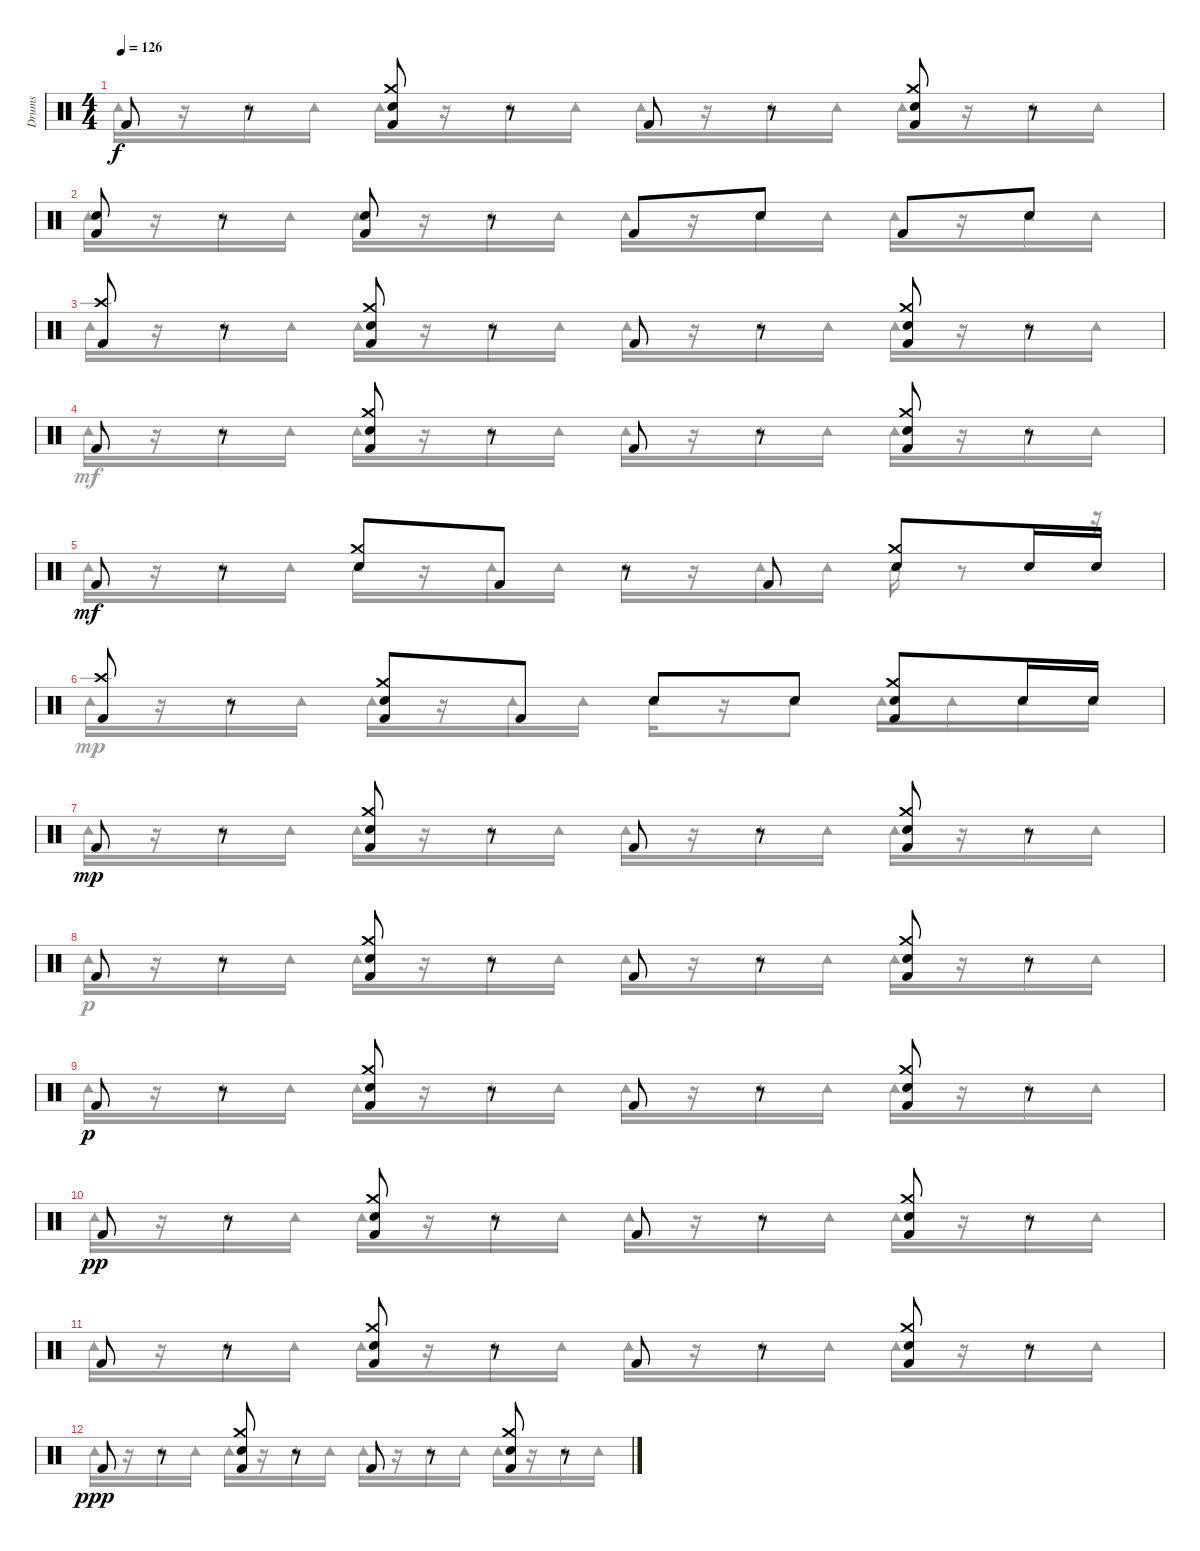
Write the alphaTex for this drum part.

\track ("Drums" "Drums") {instrument percussion}
\staff {score}
\articulation defaults
\voice
\ts (4 4)
\tempo 126
\clef neutral
\ks c "Kick (hit) 2".8{dy f}
r.8 ("Crash medium (hit)" "Electric Snare (hit)" "Kick (hit) 2").8 r.8 "Kick (hit) 2".8 r.8 ("Crash medium (hit)" "Electric Snare (hit)" "Kick (hit) 2").8 r.8 |
("Electric Snare (hit)" "Kick (hit) 2").8 r.8 ("Electric Snare (hit)" "Kick (hit) 2").8 r.8 "Kick (hit) 2".8 "Electric Snare (hit)".8 "Kick (hit) 2".8 "Electric Snare (hit)".8 |
("Crash high (hit)" "Kick (hit) 2").8 r.8 ("Crash medium (hit)" "Electric Snare (hit)" "Kick (hit) 2").8 r.8 "Kick (hit) 2".8 r.8 ("Crash medium (hit)" "Electric Snare (hit)" "Kick (hit) 2").8 r.8 |
"Kick (hit) 2".8 r.8 ("Crash medium (hit)" "Electric Snare (hit)" "Kick (hit) 2").8 r.8 "Kick (hit) 2".8 r.8 ("Crash medium (hit)" "Electric Snare (hit)" "Kick (hit) 2").8 r.8 |
"Kick (hit) 2".8{dy mf} r.8 ("Crash medium (hit)" "Electric Snare (hit)").8 "Kick (hit) 2".8 r.8 "Kick (hit) 2".8 ("Crash medium (hit)" "Electric Snare (hit)").8 "Electric Snare (hit)".16 "Electric Snare (hit)".16 |
("Crash high (hit)" "Kick (hit) 2").8 r.8 ("Crash medium (hit)" "Electric Snare (hit)" "Kick (hit) 2").8 "Kick (hit) 2".8 "Electric Snare (hit)".8 "Electric Snare (hit)".8 ("Crash medium (hit)" "Electric Snare (hit)" "Kick (hit) 2").8 "Electric Snare (hit)".16 "Electric Snare (hit)".16 |
"Kick (hit) 2".8{dy mp} r.8 ("Crash medium (hit)" "Electric Snare (hit)" "Kick (hit) 2").8 r.8 "Kick (hit) 2".8 r.8 ("Crash medium (hit)" "Electric Snare (hit)" "Kick (hit) 2").8 r.8 |
"Kick (hit) 2".8 r.8 ("Crash medium (hit)" "Electric Snare (hit)" "Kick (hit) 2").8 r.8 "Kick (hit) 2".8 r.8 ("Crash medium (hit)" "Electric Snare (hit)" "Kick (hit) 2").8 r.8 |
"Kick (hit) 2".8{dy p} r.8 ("Crash medium (hit)" "Electric Snare (hit)" "Kick (hit) 2").8 r.8 "Kick (hit) 2".8 r.8 ("Crash medium (hit)" "Electric Snare (hit)" "Kick (hit) 2").8 r.8 |
"Kick (hit) 2".8{dy pp} r.8 ("Crash medium (hit)" "Electric Snare (hit)" "Kick (hit) 2").8 r.8 "Kick (hit) 2".8 r.8 ("Crash medium (hit)" "Electric Snare (hit)" "Kick (hit) 2").8 r.8 |
"Kick (hit) 2".8 r.8 ("Crash medium (hit)" "Electric Snare (hit)" "Kick (hit) 2").8 r.8 "Kick (hit) 2".8 r.8 ("Crash medium (hit)" "Electric Snare (hit)" "Kick (hit) 2").8 r.8 |
"Kick (hit) 2".8{dy ppp} r.8 ("Crash medium (hit)" "Electric Snare (hit)" "Kick (hit) 2").8 r.8 "Kick (hit) 2".8 r.8 ("Crash medium (hit)" "Electric Snare (hit)" "Kick (hit) 2").8 r.8 |
|
|
|
\voice
\clef neutral
\ottava regular
\simile none
\ks c "Tambourine (hit)".16{dy f}
r.16 "Tambourine (hit)".16 "Tambourine (hit)".16 "Tambourine (hit)".16 r.16 "Tambourine (hit)".16 "Tambourine (hit)".16 "Tambourine (hit)".16 r.16 "Tambourine (hit)".16 "Tambourine (hit)".16 "Tambourine (hit)".16 r.16 "Tambourine (hit)".16 "Tambourine (hit)".16 |
"Tambourine (hit)".16 r.16 "Tambourine (hit)".16 "Tambourine (hit)".16 "Tambourine (hit)".16 r.16 "Tambourine (hit)".16 "Tambourine (hit)".16 "Tambourine (hit)".16 r.16 "Tambourine (hit)".16 "Tambourine (hit)".16 "Tambourine (hit)".16 r.16 "Tambourine (hit)".16 "Tambourine (hit)".16 |
"Tambourine (hit)".16 r.16 "Tambourine (hit)".16 "Tambourine (hit)".16 "Tambourine (hit)".16 r.16 "Tambourine (hit)".16 "Tambourine (hit)".16 "Tambourine (hit)".16 r.16 "Tambourine (hit)".16 "Tambourine (hit)".16 "Tambourine (hit)".16 r.16 "Tambourine (hit)".16 "Tambourine (hit)".16 |
"Tambourine (hit)".16{dy mf} r.16 "Tambourine (hit)".16 "Tambourine (hit)".16 "Tambourine (hit)".16 r.16 "Tambourine (hit)".16 "Tambourine (hit)".16 "Tambourine (hit)".16 r.16 "Tambourine (hit)".16 "Tambourine (hit)".16 "Tambourine (hit)".16 r.16 "Tambourine (hit)".16 "Tambourine (hit)".16 |
"Tambourine (hit)".16 r.16 "Tambourine (hit)".16 "Tambourine (hit)".16 "Tambourine (hit)".16 r.16 "Tambourine (hit)".16 "Tambourine (hit)".16 "Tambourine (hit)".16 r.16 "Tambourine (hit)".16 "Tambourine (hit)".16 "Tambourine (hit)".16 r.8 r.16 |
"Tambourine (hit)".16{dy mp} r.16 "Tambourine (hit)".16 "Tambourine (hit)".16 "Tambourine (hit)".16 r.16 "Tambourine (hit)".16 "Tambourine (hit)".16 "Tambourine (hit)".16 r.16 "Tambourine (hit)".8 "Tambourine (hit)".16 "Tambourine (hit)".16 "Tambourine (hit)".16 "Tambourine (hit)".16 |
"Tambourine (hit)".16 r.16 "Tambourine (hit)".16 "Tambourine (hit)".16 "Tambourine (hit)".16 r.16 "Tambourine (hit)".16 "Tambourine (hit)".16 "Tambourine (hit)".16 r.16 "Tambourine (hit)".16 "Tambourine (hit)".16 "Tambourine (hit)".16 r.16 "Tambourine (hit)".16 "Tambourine (hit)".16 |
"Tambourine (hit)".16{dy p} r.16 "Tambourine (hit)".16 "Tambourine (hit)".16 "Tambourine (hit)".16 r.16 "Tambourine (hit)".16 "Tambourine (hit)".16 "Tambourine (hit)".16 r.16 "Tambourine (hit)".16 "Tambourine (hit)".16 "Tambourine (hit)".16 r.16 "Tambourine (hit)".16 "Tambourine (hit)".16 |
"Tambourine (hit)".16 r.16 "Tambourine (hit)".16 "Tambourine (hit)".16 "Tambourine (hit)".16 r.16 "Tambourine (hit)".16 "Tambourine (hit)".16 "Tambourine (hit)".16 r.16 "Tambourine (hit)".16 "Tambourine (hit)".16 "Tambourine (hit)".16 r.16 "Tambourine (hit)".16 "Tambourine (hit)".16 |
"Tambourine (hit)".16{dy pp} r.16 "Tambourine (hit)".16 "Tambourine (hit)".16 "Tambourine (hit)".16 r.16 "Tambourine (hit)".16 "Tambourine (hit)".16 "Tambourine (hit)".16 r.16 "Tambourine (hit)".16 "Tambourine (hit)".16 "Tambourine (hit)".16 r.16 "Tambourine (hit)".16 "Tambourine (hit)".16 |
"Tambourine (hit)".16 r.16 "Tambourine (hit)".16 "Tambourine (hit)".16 "Tambourine (hit)".16 r.16 "Tambourine (hit)".16 "Tambourine (hit)".16 "Tambourine (hit)".16 r.16 "Tambourine (hit)".16 "Tambourine (hit)".16 "Tambourine (hit)".16 r.16 "Tambourine (hit)".16 "Tambourine (hit)".16 |
"Tambourine (hit)".16{dy ppp} r.16 "Tambourine (hit)".16 "Tambourine (hit)".16 "Tambourine (hit)".16 r.16 "Tambourine (hit)".16 "Tambourine (hit)".16 "Tambourine (hit)".16 r.16 "Tambourine (hit)".16 "Tambourine (hit)".16 "Tambourine (hit)".16 r.16 "Tambourine (hit)".16 "Tambourine (hit)".16 |
|
|
|
